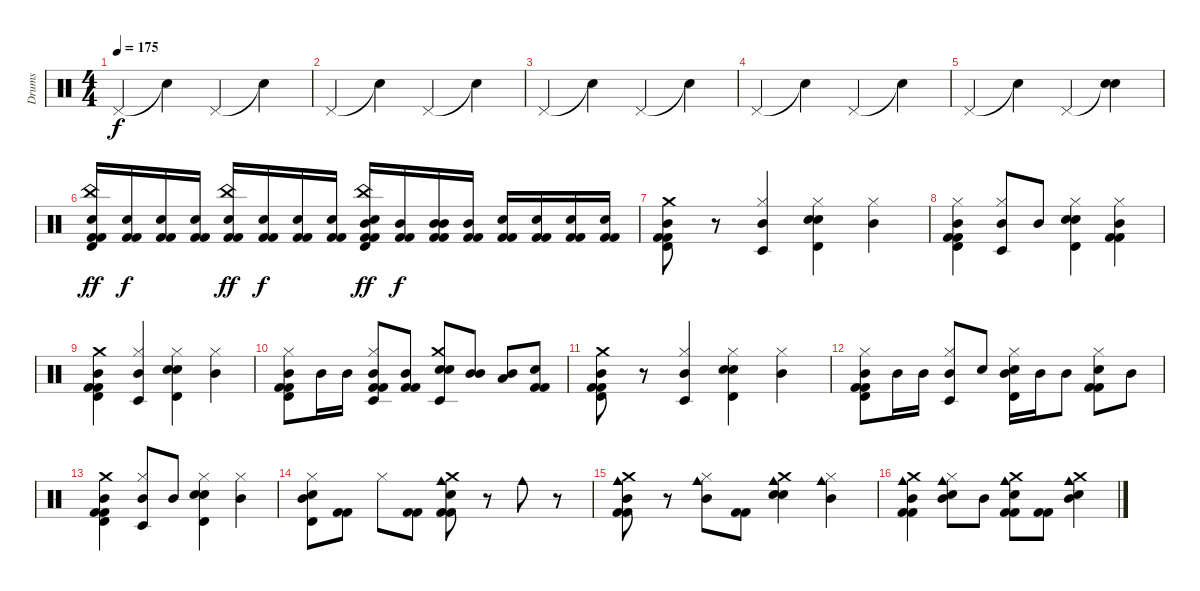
\track ("Drums" "Drums") {instrument percussion}
\staff {score}
\articulation defaults
\ts (4 4)
\tempo 175
\clef neutral
\ks c "Pedal Hi-Hat (hit)".4{dy f} "Snare (hit)"{t}.4 "Pedal Hi-Hat (hit)".4 "Snare (hit)"{t}.4
|
"Pedal Hi-Hat (hit)".4 "Snare (hit)"{t}.4 "Pedal Hi-Hat (hit)".4 "Snare (hit)"{t}.4 |
"Pedal Hi-Hat (hit)".4 "Snare (hit)"{t}.4 "Pedal Hi-Hat (hit)".4 "Snare (hit)"{t}.4 |
"Pedal Hi-Hat (hit)".4 "Snare (hit)"{t}.4 "Pedal Hi-Hat (hit)".4 "Snare (hit)"{t}.4 |
"Pedal Hi-Hat (hit)".4 "Snare (hit)"{t}.4 "Pedal Hi-Hat (hit)".4 ("Snare (hit)"{t} "Electric Snare (hit)").4 |
("China (hit)" "Timbale high (hit)" "Electric Snare (hit)" "Kick (hit) 2" "Kick (hit) 2").16{dy ff} ("Electric Snare (hit)" "Kick (hit) 2" "Kick (hit) 2").16{dy f} ("Electric Snare (hit)" "Kick (hit) 2" "Kick (hit) 2").16 ("Electric Snare (hit)" "Kick (hit) 2" "Kick (hit) 2").16 ("China (hit)" "Snare (hit) 2" "Kick (hit) 2" "Kick (hit) 2").16{dy ff} ("Snare (hit) 2" "Kick (hit) 2" "Kick (hit) 2").16{dy f} ("Snare (hit) 2" "Kick (hit) 2" "Kick (hit) 2").16 ("Snare (hit) 2" "Kick (hit) 2" "Kick (hit) 2").16 ("China (hit)" "Timbale high (hit)" "Snare (hit) 2" "Mid Tom (hit)" "Kick (hit) 2" "Kick (hit) 2").16{dy ff} ("Mid Tom (hit)" "Kick (hit) 2" "Kick (hit) 2").16{dy f} ("Mid Tom (hit)" "Mid Tom (hit)" "Kick (hit) 2" "Kick (hit) 2").16 ("Mid Tom (hit)" "Kick (hit) 2" "Kick (hit) 2").16 ("Electric Snare (hit)" "Kick (hit) 2" "Kick (hit) 2").16 ("Electric Snare (hit)" "Kick (hit) 2" "Kick (hit) 2").16 ("Electric Snare (hit)" "Kick (hit) 2" "Kick (hit) 2").16 ("Electric Snare (hit)" "Kick (hit) 2" "Kick (hit) 2").16 |
("Crash medium (hit)" "Timbale high (hit)" "Mid Tom (hit)" "Kick (hit) 2" "Kick (hit) 2").8 r.8 ("Hi-Hat (closed)" "Timbale low (hit)" "Mid Tom (hit)").4 ("Hi-Hat (closed)" "Electric Snare (hit)" "Snare (hit) 2" "Timbale high (hit)").4 ("Hi-Hat (closed)" "Mid Tom (hit)").4 |
("Hi-Hat (closed)" "Timbale high (hit)" "Mid Tom (hit)" "Kick (hit) 2" "Kick (hit) 2").4 ("Hi-Hat (closed)" "Timbale low (hit)" "Mid Tom (hit)").8 "Mid Tom (hit)".8 ("Hi-Hat (closed)" "Electric Snare (hit)" "Snare (hit) 2" "Timbale high (hit)").4 ("Hi-Hat (closed)" "Mid Tom (hit)" "Kick (hit) 2" "Kick (hit) 2").4 |
("Crash medium (hit)" "Timbale high (hit)" "Mid Tom (hit)" "Kick (hit) 2" "Kick (hit) 2").4 ("Hi-Hat (closed)" "Mid Tom (hit)" "Timbale low (hit)").4 ("Hi-Hat (closed)" "Electric Snare (hit)" "Snare (hit) 2" "Timbale high (hit)").4 ("Hi-Hat (closed)" "Mid Tom (hit)").4 |
("Hi-Hat (closed)" "Mid Tom (hit)" "Timbale high (hit)" "Kick (hit) 2" "Kick (hit) 2").8 "Mid Tom (hit)".16 "Mid Tom (hit)".16 ("Hi-Hat (closed)" "Mid Tom (hit)" "Timbale low (hit)" "Kick (hit) 2" "Kick (hit) 2").8 ("Mid Tom (hit)" "Kick (hit) 2" "Kick (hit) 2").8 ("Crash medium (hit)" "Electric Snare (hit)" "Snare (hit) 2" "Timbale low (hit)").8 ("Mid Tom (hit)" "Mid Tom (hit)").8 ("Mid Tom (hit)" "Low Tom (hit)").8 ("Electric Snare (hit)" "Kick (hit) 2" "Kick (hit) 2").8 |
("Crash medium (hit)" "Mid Tom (hit)" "Timbale high (hit)" "Kick (hit) 2" "Kick (hit) 2").8 r.8 ("Hi-Hat (closed)" "Mid Tom (hit)" "Timbale low (hit)").4 ("Hi-Hat (closed)" "Electric Snare (hit)" "Snare (hit) 2" "Timbale high (hit)").4 ("Hi-Hat (closed)" "Mid Tom (hit)").4 |
("Hi-Hat (closed)" "Mid Tom (hit)" "Timbale high (hit)" "Kick (hit) 2" "Kick (hit) 2").8 "Mid Tom (hit)".16 "Mid Tom (hit)".16 ("Hi-Hat (closed)" "Mid Tom (hit)" "Timbale low (hit)").8 "Electric Snare (hit)".8 ("Hi-Hat (closed)" "Mid Tom (hit)" "Snare (hit) 2" "Timbale high (hit)").16 "Mid Tom (hit)".16 "Mid Tom (hit)".8 ("Hi-Hat (closed)" "Electric Snare (hit)" "Kick (hit) 2" "Kick (hit) 2").8 "Mid Tom (hit)".8 |
("Crash medium (hit)" "Mid Tom (hit)" "Timbale high (hit)" "Kick (hit) 2" "Kick (hit) 2").4 ("Hi-Hat (closed)" "Mid Tom (hit)" "Timbale low (hit)").8 "Mid Tom (hit)".8 ("Hi-Hat (closed)" "Electric Snare (hit)" "Snare (hit) 2" "Timbale high (hit)").4 ("Hi-Hat (closed)" "Mid Tom (hit)").4 |
("Hi-Hat (closed)" "Mid Tom (hit)" "Snare (hit) 2" "Timbale high (hit)").8 ("Kick (hit) 2" "Kick (hit) 2").8 "Hi-Hat (closed)".8 ("Kick (hit) 2" "Kick (hit) 2").8 ("Crash medium (hit)" "Electric Snare (hit)" "Cowbell medium (hit)" "Kick (hit) 2" "Kick (hit) 2").8 r.8 "Cowbell medium (hit)".8 r.8 |
("Crash medium (hit)" "Mid Tom (hit)" "Cowbell medium (hit)" "Kick (hit) 2" "Kick (hit) 2").8 r.8 ("Hi-Hat (closed)" "Mid Tom (hit)" "Cowbell medium (hit)").8 ("Kick (hit) 2" "Kick (hit) 2").8 ("Crash medium (hit)" "Electric Snare (hit)" "Snare (hit) 2" "Cowbell medium (hit)").4 ("Hi-Hat (closed)" "Mid Tom (hit)" "Cowbell medium (hit)").4 |
("Crash medium (hit)" "Mid Tom (hit)" "Cowbell medium (hit)" "Kick (hit) 2" "Kick (hit) 2").4 ("Hi-Hat (closed)" "Mid Tom (hit)" "Snare (hit) 2" "Cowbell medium (hit)").8 "Mid Tom (hit)".8 ("Crash medium (hit)" "Electric Snare (hit)" "Cowbell medium (hit)" "Kick (hit) 2" "Kick (hit) 2").8 ("Kick (hit) 2" "Kick (hit) 2").8 ("Crash medium (hit)" "Mid Tom (hit)" "Snare (hit) 2" "Cowbell medium (hit)").4
